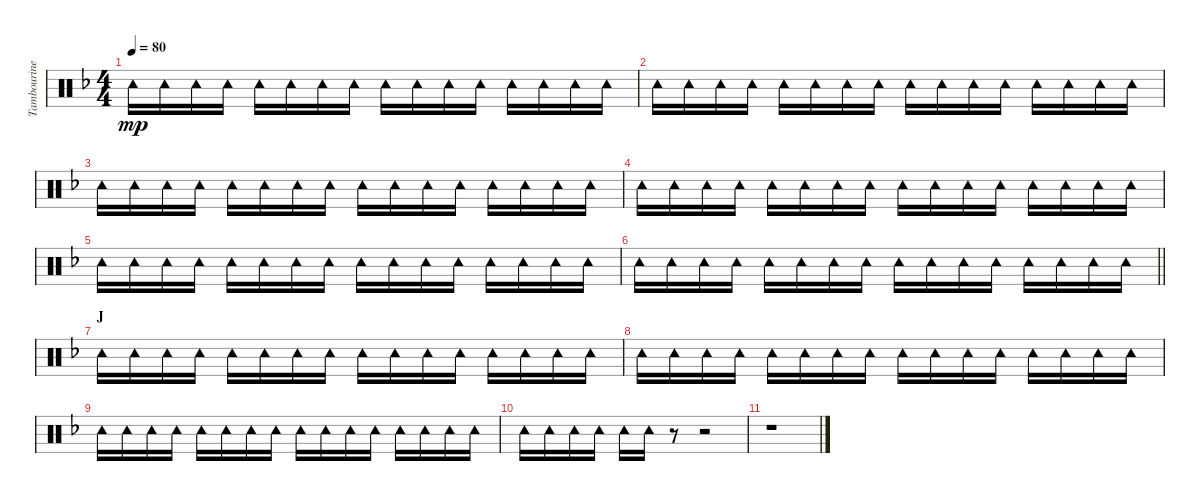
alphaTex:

\track ("Tambourine" "Tambourine") {instrument percussion}
\staff {score}
\articulation defaults
\ts (4 4)
\tempo 80
\clef neutral
\ks f "Tambourine (hit)".16{dy mp} "Tambourine (hit)".16 "Tambourine (hit)".16 "Tambourine (hit)".16 "Tambourine (hit)".16 "Tambourine (hit)".16 "Tambourine (hit)".16 "Tambourine (hit)".16 "Tambourine (hit)".16 "Tambourine (hit)".16 "Tambourine (hit)".16 "Tambourine (hit)".16 "Tambourine (hit)".16 "Tambourine (hit)".16 "Tambourine (hit)".16 "Tambourine (hit)".16
|
"Tambourine (hit)".16 "Tambourine (hit)".16 "Tambourine (hit)".16 "Tambourine (hit)".16 "Tambourine (hit)".16 "Tambourine (hit)".16 "Tambourine (hit)".16 "Tambourine (hit)".16 "Tambourine (hit)".16 "Tambourine (hit)".16 "Tambourine (hit)".16 "Tambourine (hit)".16 "Tambourine (hit)".16 "Tambourine (hit)".16 "Tambourine (hit)".16 "Tambourine (hit)".16 |
"Tambourine (hit)".16 "Tambourine (hit)".16 "Tambourine (hit)".16 "Tambourine (hit)".16 "Tambourine (hit)".16 "Tambourine (hit)".16 "Tambourine (hit)".16 "Tambourine (hit)".16 "Tambourine (hit)".16 "Tambourine (hit)".16 "Tambourine (hit)".16 "Tambourine (hit)".16 "Tambourine (hit)".16 "Tambourine (hit)".16 "Tambourine (hit)".16 "Tambourine (hit)".16 |
"Tambourine (hit)".16 "Tambourine (hit)".16 "Tambourine (hit)".16 "Tambourine (hit)".16 "Tambourine (hit)".16 "Tambourine (hit)".16 "Tambourine (hit)".16 "Tambourine (hit)".16 "Tambourine (hit)".16 "Tambourine (hit)".16 "Tambourine (hit)".16 "Tambourine (hit)".16 "Tambourine (hit)".16 "Tambourine (hit)".16 "Tambourine (hit)".16 "Tambourine (hit)".16 |
"Tambourine (hit)".16 "Tambourine (hit)".16 "Tambourine (hit)".16 "Tambourine (hit)".16 "Tambourine (hit)".16 "Tambourine (hit)".16 "Tambourine (hit)".16 "Tambourine (hit)".16 "Tambourine (hit)".16 "Tambourine (hit)".16 "Tambourine (hit)".16 "Tambourine (hit)".16 "Tambourine (hit)".16 "Tambourine (hit)".16 "Tambourine (hit)".16 "Tambourine (hit)".16 |
\barLineRight lightlight "Tambourine (hit)".16 "Tambourine (hit)".16 "Tambourine (hit)".16 "Tambourine (hit)".16 "Tambourine (hit)".16 "Tambourine (hit)".16 "Tambourine (hit)".16 "Tambourine (hit)".16 "Tambourine (hit)".16 "Tambourine (hit)".16 "Tambourine (hit)".16 "Tambourine (hit)".16 "Tambourine (hit)".16 "Tambourine (hit)".16 "Tambourine (hit)".16 "Tambourine (hit)".16
|
\section ("" "J")
"Tambourine (hit)".16 "Tambourine (hit)".16 "Tambourine (hit)".16 "Tambourine (hit)".16 "Tambourine (hit)".16 "Tambourine (hit)".16 "Tambourine (hit)".16 "Tambourine (hit)".16 "Tambourine (hit)".16 "Tambourine (hit)".16 "Tambourine (hit)".16 "Tambourine (hit)".16 "Tambourine (hit)".16 "Tambourine (hit)".16 "Tambourine (hit)".16 "Tambourine (hit)".16 |
"Tambourine (hit)".16 "Tambourine (hit)".16 "Tambourine (hit)".16 "Tambourine (hit)".16 "Tambourine (hit)".16 "Tambourine (hit)".16 "Tambourine (hit)".16 "Tambourine (hit)".16 "Tambourine (hit)".16 "Tambourine (hit)".16 "Tambourine (hit)".16 "Tambourine (hit)".16 "Tambourine (hit)".16 "Tambourine (hit)".16 "Tambourine (hit)".16 "Tambourine (hit)".16 |
"Tambourine (hit)".16 "Tambourine (hit)".16 "Tambourine (hit)".16 "Tambourine (hit)".16 "Tambourine (hit)".16 "Tambourine (hit)".16 "Tambourine (hit)".16 "Tambourine (hit)".16 "Tambourine (hit)".16 "Tambourine (hit)".16 "Tambourine (hit)".16 "Tambourine (hit)".16 "Tambourine (hit)".16 "Tambourine (hit)".16 "Tambourine (hit)".16 "Tambourine (hit)".16 |
"Tambourine (hit)".16 "Tambourine (hit)".16 "Tambourine (hit)".16 "Tambourine (hit)".16 "Tambourine (hit)".16 "Tambourine (hit)".16 r.8 r.2 |
r.1
